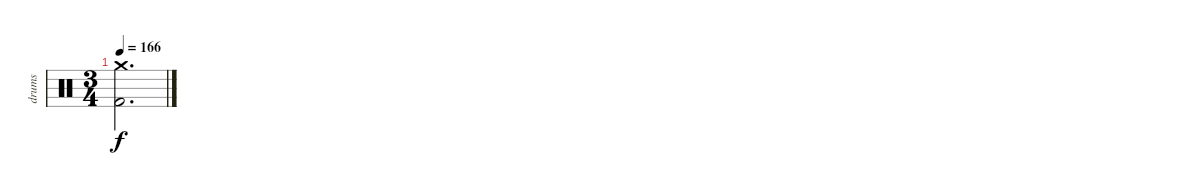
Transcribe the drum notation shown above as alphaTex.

\track ("drums" "drums") {instrument percussion}
\staff {score}
\articulation defaults
\ts (3 4)
\tempo 166
\clef neutral
\ks c
("Crash medium (hit)" "Kick (hit) 2").2{d dy f}
